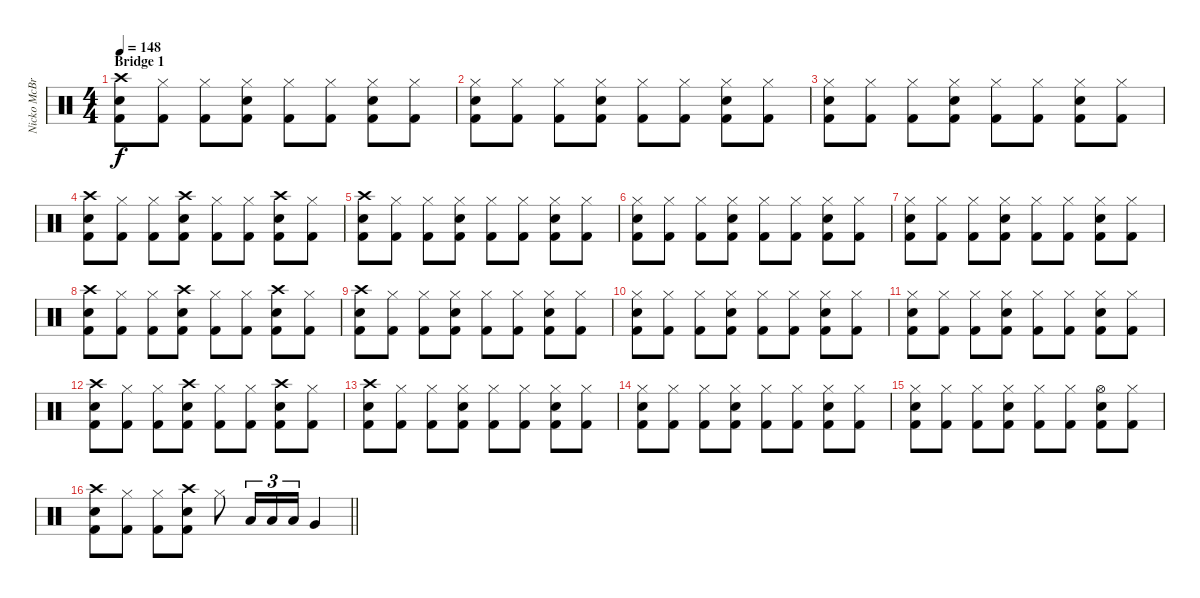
\track ("Nicko McBrain" "Nicko McBr") {instrument percussion}
\staff {score}
\articulation defaults
\ts (4 4)
\section ("" "Bridge 1")
\tempo 148
\clef neutral
\ks c
("Crash high (hit)" "Electric Snare (hit)" "Kick (hit) 2").8{dy f} ("Hi-Hat (closed)" "Kick (hit) 2").8 ("Hi-Hat (closed)" "Kick (hit) 2").8 ("Hi-Hat (closed)" "Electric Snare (hit)" "Kick (hit) 2").8 ("Hi-Hat (closed)" "Kick (hit) 2").8 ("Hi-Hat (closed)" "Kick (hit) 2").8 ("Hi-Hat (closed)" "Electric Snare (hit)" "Kick (hit) 2").8 ("Hi-Hat (closed)" "Kick (hit) 2").8 |
("Hi-Hat (closed)" "Electric Snare (hit)" "Kick (hit) 2").8 ("Hi-Hat (closed)" "Kick (hit) 2").8 ("Hi-Hat (closed)" "Kick (hit) 2").8 ("Hi-Hat (closed)" "Electric Snare (hit)" "Kick (hit) 2").8 ("Hi-Hat (closed)" "Kick (hit) 2").8 ("Hi-Hat (closed)" "Kick (hit) 2").8 ("Hi-Hat (closed)" "Electric Snare (hit)" "Kick (hit) 2").8 ("Hi-Hat (closed)" "Kick (hit) 2").8 |
("Hi-Hat (closed)" "Electric Snare (hit)" "Kick (hit) 2").8 ("Hi-Hat (closed)" "Kick (hit) 2").8 ("Hi-Hat (closed)" "Kick (hit) 2").8 ("Hi-Hat (closed)" "Electric Snare (hit)" "Kick (hit) 2").8 ("Hi-Hat (closed)" "Kick (hit) 2").8 ("Hi-Hat (closed)" "Kick (hit) 2").8 ("Hi-Hat (closed)" "Electric Snare (hit)" "Kick (hit) 2").8 ("Hi-Hat (closed)" "Kick (hit) 2").8 |
("Crash high (hit)" "Electric Snare (hit)" "Kick (hit) 2").8 ("Hi-Hat (closed)" "Kick (hit) 2").8 ("Hi-Hat (closed)" "Kick (hit) 2").8 ("Crash high (hit)" "Electric Snare (hit)" "Kick (hit) 2").8 ("Hi-Hat (closed)" "Kick (hit) 2").8 ("Hi-Hat (closed)" "Kick (hit) 2").8 ("Crash high (hit)" "Electric Snare (hit)" "Kick (hit) 2").8 ("Hi-Hat (closed)" "Kick (hit) 2").8 |
("Crash high (hit)" "Electric Snare (hit)" "Kick (hit) 2").8 ("Hi-Hat (closed)" "Kick (hit) 2").8 ("Hi-Hat (closed)" "Kick (hit) 2").8 ("Hi-Hat (closed)" "Electric Snare (hit)" "Kick (hit) 2").8 ("Hi-Hat (closed)" "Kick (hit) 2").8 ("Hi-Hat (closed)" "Kick (hit) 2").8 ("Hi-Hat (closed)" "Electric Snare (hit)" "Kick (hit) 2").8 ("Hi-Hat (closed)" "Kick (hit) 2").8 |
("Hi-Hat (closed)" "Electric Snare (hit)" "Kick (hit) 2").8 ("Hi-Hat (closed)" "Kick (hit) 2").8 ("Hi-Hat (closed)" "Kick (hit) 2").8 ("Hi-Hat (closed)" "Electric Snare (hit)" "Kick (hit) 2").8 ("Hi-Hat (closed)" "Kick (hit) 2").8 ("Hi-Hat (closed)" "Kick (hit) 2").8 ("Hi-Hat (closed)" "Electric Snare (hit)" "Kick (hit) 2").8 ("Hi-Hat (closed)" "Kick (hit) 2").8 |
("Hi-Hat (closed)" "Electric Snare (hit)" "Kick (hit) 2").8 ("Hi-Hat (closed)" "Kick (hit) 2").8 ("Hi-Hat (closed)" "Kick (hit) 2").8 ("Hi-Hat (closed)" "Electric Snare (hit)" "Kick (hit) 2").8 ("Hi-Hat (closed)" "Kick (hit) 2").8 ("Hi-Hat (closed)" "Kick (hit) 2").8 ("Hi-Hat (closed)" "Electric Snare (hit)" "Kick (hit) 2").8 ("Hi-Hat (closed)" "Kick (hit) 2").8 |
("Crash high (hit)" "Electric Snare (hit)" "Kick (hit) 2").8 ("Hi-Hat (closed)" "Kick (hit) 2").8 ("Hi-Hat (closed)" "Kick (hit) 2").8 ("Crash high (hit)" "Electric Snare (hit)" "Kick (hit) 2").8 ("Hi-Hat (closed)" "Kick (hit) 2").8 ("Hi-Hat (closed)" "Kick (hit) 2").8 ("Crash high (hit)" "Electric Snare (hit)" "Kick (hit) 2").8 ("Hi-Hat (closed)" "Kick (hit) 2").8 |
("Crash high (hit)" "Electric Snare (hit)" "Kick (hit) 2").8 ("Hi-Hat (closed)" "Kick (hit) 2").8 ("Hi-Hat (closed)" "Kick (hit) 2").8 ("Hi-Hat (closed)" "Electric Snare (hit)" "Kick (hit) 2").8 ("Hi-Hat (closed)" "Kick (hit) 2").8 ("Hi-Hat (closed)" "Kick (hit) 2").8 ("Hi-Hat (closed)" "Electric Snare (hit)" "Kick (hit) 2").8 ("Hi-Hat (closed)" "Kick (hit) 2").8 |
("Hi-Hat (closed)" "Electric Snare (hit)" "Kick (hit) 2").8 ("Hi-Hat (closed)" "Kick (hit) 2").8 ("Hi-Hat (closed)" "Kick (hit) 2").8 ("Hi-Hat (closed)" "Electric Snare (hit)" "Kick (hit) 2").8 ("Hi-Hat (closed)" "Kick (hit) 2").8 ("Hi-Hat (closed)" "Kick (hit) 2").8 ("Hi-Hat (closed)" "Electric Snare (hit)" "Kick (hit) 2").8 ("Hi-Hat (closed)" "Kick (hit) 2").8 |
("Hi-Hat (closed)" "Electric Snare (hit)" "Kick (hit) 2").8 ("Hi-Hat (closed)" "Kick (hit) 2").8 ("Hi-Hat (closed)" "Kick (hit) 2").8 ("Hi-Hat (closed)" "Electric Snare (hit)" "Kick (hit) 2").8 ("Hi-Hat (closed)" "Kick (hit) 2").8 ("Hi-Hat (closed)" "Kick (hit) 2").8 ("Hi-Hat (closed)" "Electric Snare (hit)" "Kick (hit) 2").8 ("Hi-Hat (closed)" "Kick (hit) 2").8 |
("Crash high (hit)" "Electric Snare (hit)" "Kick (hit) 2").8 ("Hi-Hat (closed)" "Kick (hit) 2").8 ("Hi-Hat (closed)" "Kick (hit) 2").8 ("Crash high (hit)" "Electric Snare (hit)" "Kick (hit) 2").8 ("Hi-Hat (closed)" "Kick (hit) 2").8 ("Hi-Hat (closed)" "Kick (hit) 2").8 ("Crash high (hit)" "Electric Snare (hit)" "Kick (hit) 2").8 ("Hi-Hat (closed)" "Kick (hit) 2").8 |
("Crash high (hit)" "Electric Snare (hit)" "Kick (hit) 2").8 ("Hi-Hat (closed)" "Kick (hit) 2").8 ("Hi-Hat (closed)" "Kick (hit) 2").8 ("Hi-Hat (closed)" "Electric Snare (hit)" "Kick (hit) 2").8 ("Hi-Hat (closed)" "Kick (hit) 2").8 ("Hi-Hat (closed)" "Kick (hit) 2").8 ("Hi-Hat (closed)" "Electric Snare (hit)" "Kick (hit) 2").8 ("Hi-Hat (closed)" "Kick (hit) 2").8 |
("Hi-Hat (closed)" "Electric Snare (hit)" "Kick (hit) 2").8 ("Hi-Hat (closed)" "Kick (hit) 2").8 ("Hi-Hat (closed)" "Kick (hit) 2").8 ("Hi-Hat (closed)" "Electric Snare (hit)" "Kick (hit) 2").8 ("Hi-Hat (closed)" "Kick (hit) 2").8 ("Hi-Hat (closed)" "Kick (hit) 2").8 ("Hi-Hat (closed)" "Electric Snare (hit)" "Kick (hit) 2").8 ("Hi-Hat (closed)" "Kick (hit) 2").8 |
("Hi-Hat (closed)" "Electric Snare (hit)" "Kick (hit) 2").8 ("Hi-Hat (closed)" "Kick (hit) 2").8 ("Hi-Hat (closed)" "Kick (hit) 2").8 ("Hi-Hat (closed)" "Electric Snare (hit)" "Kick (hit) 2").8 ("Hi-Hat (closed)" "Kick (hit) 2").8 ("Hi-Hat (closed)" "Kick (hit) 2").8 ("Hi-Hat (open)" "Electric Snare (hit)" "Kick (hit) 2").8 ("Hi-Hat (closed)" "Kick (hit) 2").8 |
\barLineRight lightlight
("Crash high (hit)" "Electric Snare (hit)" "Kick (hit) 2").8 ("Hi-Hat (closed)" "Kick (hit) 2").8 ("Hi-Hat (closed)" "Kick (hit) 2").8 ("Crash high (hit)" "Electric Snare (hit)" "Kick (hit) 2").8 "Hi-Hat (closed)".8 "Low Tom (hit)".16{tu (3 2)} "Low Tom (hit)".16{tu (3 2)} "Low Tom (hit)".16{tu (3 2)} "Very Low Tom (hit)".4
